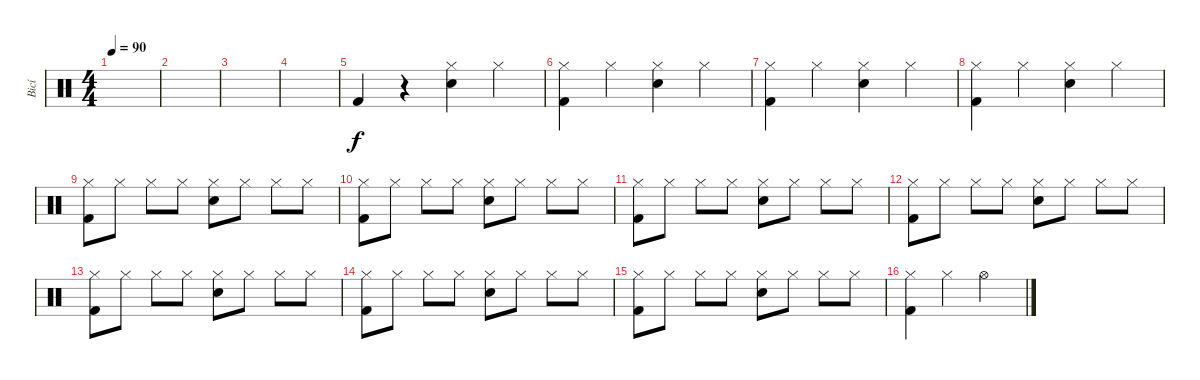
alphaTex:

\track ("Bicí" "Bicí") {instrument percussion}
\staff {score}
\articulation defaults
\ts (4 4)
\tempo 90
\clef neutral
\ks c
|
|
|
|
"Kick (hit) 2".4 r.4 ("Hi-Hat (closed)" "Electric Snare (hit)").4 "Hi-Hat (closed)".4 |
("Hi-Hat (closed)" "Kick (hit) 2").4 "Hi-Hat (closed)".4 ("Hi-Hat (closed)" "Electric Snare (hit)").4 "Hi-Hat (closed)".4 |
("Hi-Hat (closed)" "Kick (hit) 2").4 "Hi-Hat (closed)".4 ("Hi-Hat (closed)" "Electric Snare (hit)").4 "Hi-Hat (closed)".4 |
("Hi-Hat (closed)" "Kick (hit) 2").4 "Hi-Hat (closed)".4 ("Hi-Hat (closed)" "Electric Snare (hit)").4 "Hi-Hat (closed)".4 |
("Hi-Hat (closed)" "Kick (hit) 2").8 "Hi-Hat (closed)".8 "Hi-Hat (closed)".8 "Hi-Hat (closed)".8 ("Hi-Hat (closed)" "Electric Snare (hit)").8 "Hi-Hat (closed)".8 "Hi-Hat (closed)".8 "Hi-Hat (closed)".8 |
("Hi-Hat (closed)" "Kick (hit) 2").8 "Hi-Hat (closed)".8 "Hi-Hat (closed)".8 "Hi-Hat (closed)".8 ("Hi-Hat (closed)" "Electric Snare (hit)").8 "Hi-Hat (closed)".8 "Hi-Hat (closed)".8 "Hi-Hat (closed)".8 |
("Hi-Hat (closed)" "Kick (hit) 2").8 "Hi-Hat (closed)".8 "Hi-Hat (closed)".8 "Hi-Hat (closed)".8 ("Hi-Hat (closed)" "Electric Snare (hit)").8 "Hi-Hat (closed)".8 "Hi-Hat (closed)".8 "Hi-Hat (closed)".8 |
("Hi-Hat (closed)" "Kick (hit) 2").8 "Hi-Hat (closed)".8 "Hi-Hat (closed)".8 "Hi-Hat (closed)".8 ("Hi-Hat (closed)" "Electric Snare (hit)").8 "Hi-Hat (closed)".8 "Hi-Hat (closed)".8 "Hi-Hat (closed)".8 |
("Hi-Hat (closed)" "Kick (hit) 2").8 "Hi-Hat (closed)".8 "Hi-Hat (closed)".8 "Hi-Hat (closed)".8 ("Hi-Hat (closed)" "Electric Snare (hit)").8 "Hi-Hat (closed)".8 "Hi-Hat (closed)".8 "Hi-Hat (closed)".8 |
("Hi-Hat (closed)" "Kick (hit) 2").8 "Hi-Hat (closed)".8 "Hi-Hat (closed)".8 "Hi-Hat (closed)".8 ("Hi-Hat (closed)" "Electric Snare (hit)").8 "Hi-Hat (closed)".8 "Hi-Hat (closed)".8 "Hi-Hat (closed)".8 |
("Hi-Hat (closed)" "Kick (hit) 2").8 "Hi-Hat (closed)".8 "Hi-Hat (closed)".8 "Hi-Hat (closed)".8 ("Hi-Hat (closed)" "Electric Snare (hit)").8 "Hi-Hat (closed)".8 "Hi-Hat (closed)".8 "Hi-Hat (closed)".8 |
("Hi-Hat (closed)" "Kick (hit) 2").4 "Hi-Hat (closed)".4 "Hi-Hat (open)".2
